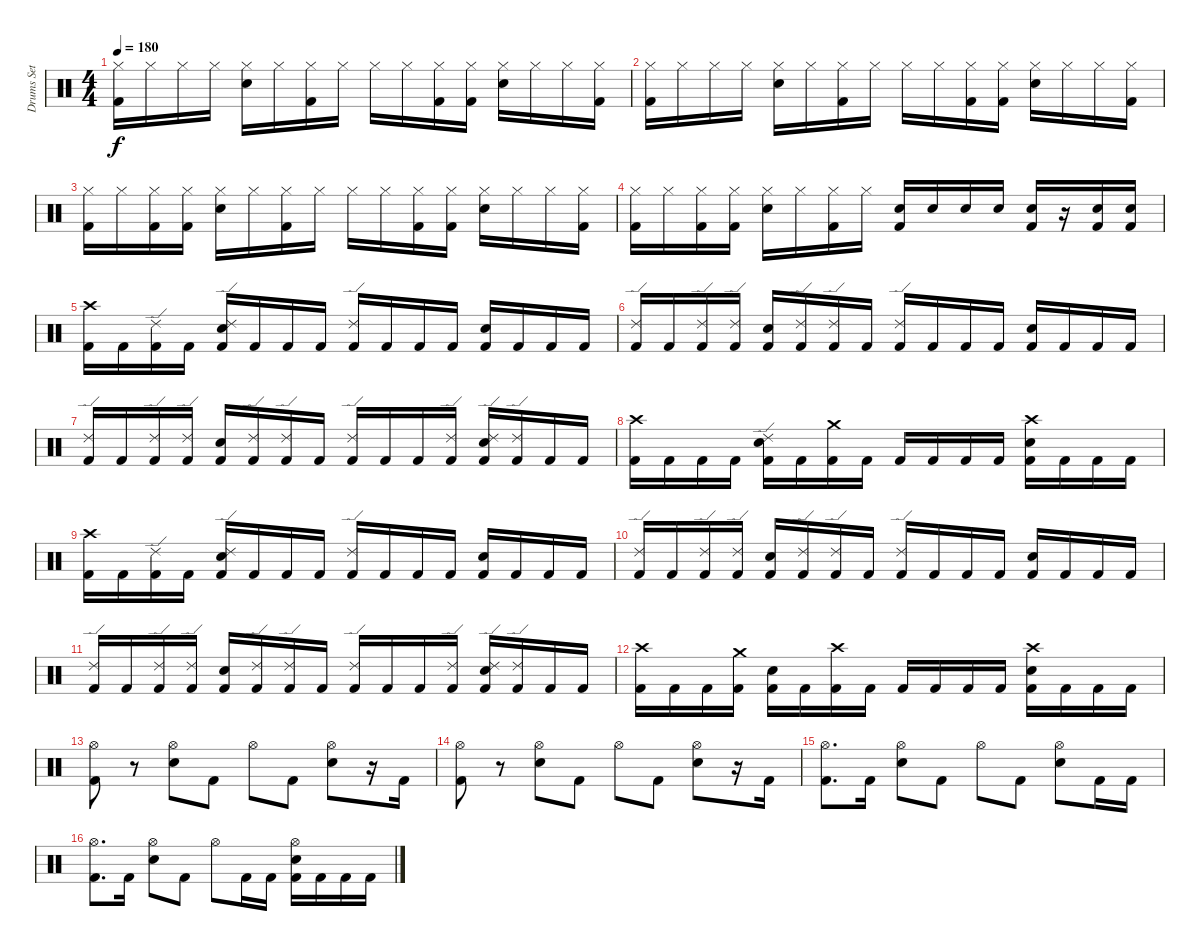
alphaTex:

\track ("Drums Set" "Drums Set") {instrument percussion}
\staff {score}
\articulation defaults
\ts (4 4)
\tempo 180
\clef neutral
\ks c
("Hi-Hat (closed)" "Kick (hit) 2").16{dy f} "Hi-Hat (closed)".16 "Hi-Hat (closed)".16 "Hi-Hat (closed)".16 ("Hi-Hat (closed)" "Snare (hit) 2").16 "Hi-Hat (closed)".16 ("Hi-Hat (closed)" "Kick (hit) 2").16 "Hi-Hat (closed)".16 "Hi-Hat (closed)".16 "Hi-Hat (closed)".16 ("Hi-Hat (closed)" "Kick (hit) 2").16 ("Hi-Hat (closed)" "Kick (hit) 2").16 ("Hi-Hat (closed)" "Snare (hit) 2").16 "Hi-Hat (closed)".16 "Hi-Hat (closed)".16 ("Hi-Hat (closed)" "Kick (hit) 2").16 |
("Hi-Hat (closed)" "Kick (hit) 2").16 "Hi-Hat (closed)".16 "Hi-Hat (closed)".16 "Hi-Hat (closed)".16 ("Hi-Hat (closed)" "Snare (hit) 2").16 "Hi-Hat (closed)".16 ("Hi-Hat (closed)" "Kick (hit) 2").16 "Hi-Hat (closed)".16 "Hi-Hat (closed)".16 "Hi-Hat (closed)".16 ("Hi-Hat (closed)" "Kick (hit) 2").16 ("Hi-Hat (closed)" "Kick (hit) 2").16 ("Hi-Hat (closed)" "Snare (hit) 2").16 "Hi-Hat (closed)".16 "Hi-Hat (closed)".16 ("Hi-Hat (closed)" "Kick (hit) 2").16 |
("Hi-Hat (closed)" "Kick (hit) 2").16 "Hi-Hat (closed)".16 ("Hi-Hat (closed)" "Kick (hit) 2").16 ("Hi-Hat (closed)" "Kick (hit) 2").16 ("Hi-Hat (closed)" "Snare (hit) 2").16 "Hi-Hat (closed)".16 ("Hi-Hat (closed)" "Kick (hit) 2").16 "Hi-Hat (closed)".16 "Hi-Hat (closed)".16 "Hi-Hat (closed)".16 ("Hi-Hat (closed)" "Kick (hit) 2").16 ("Hi-Hat (closed)" "Kick (hit) 2").16 ("Hi-Hat (closed)" "Snare (hit) 2").16 "Hi-Hat (closed)".16 "Hi-Hat (closed)".16 ("Hi-Hat (closed)" "Kick (hit) 2").16 |
("Hi-Hat (closed)" "Kick (hit) 2").16 "Hi-Hat (closed)".16 ("Hi-Hat (closed)" "Kick (hit) 2").16 ("Hi-Hat (closed)" "Kick (hit) 2").16 ("Hi-Hat (closed)" "Snare (hit) 2").16 "Hi-Hat (closed)".16 ("Hi-Hat (closed)" "Kick (hit) 2").16 "Hi-Hat (closed)".16 ("Snare (hit) 2" "Kick (hit) 2").16 "Snare (hit) 2".16 "Snare (hit) 2".16 "Snare (hit) 2".16 ("Snare (hit) 2" "Kick (hit) 2").16 r.16 ("Snare (hit) 2" "Kick (hit) 2").16 ("Snare (hit) 2" "Kick (hit) 2").16 |
("Crash high (hit)" "Kick (hit) 2").16 "Kick (hit) 2".16 ("Ride (edge) 2" "Kick (hit) 2").16 "Kick (hit) 2".16 ("Ride (edge) 2" "Snare (hit) 2" "Kick (hit) 2").16 "Kick (hit) 2".16 "Kick (hit) 2".16 "Kick (hit) 2".16 ("Ride (edge) 2" "Kick (hit) 2").16 "Kick (hit) 2".16 "Kick (hit) 2".16 "Kick (hit) 2".16 ("Snare (hit) 2" "Kick (hit) 2").16 "Kick (hit) 2".16 "Kick (hit) 2".16 "Kick (hit) 2".16 |
("Ride (edge) 2" "Kick (hit) 2").16 "Kick (hit) 2".16 ("Ride (edge) 2" "Kick (hit) 2").16 ("Ride (edge) 2" "Kick (hit) 2").16 ("Snare (hit) 2" "Kick (hit) 2").16 ("Ride (edge) 2" "Kick (hit) 2").16 ("Ride (edge) 2" "Kick (hit) 2").16 "Kick (hit) 2".16 ("Ride (edge) 2" "Kick (hit) 2").16 "Kick (hit) 2".16 "Kick (hit) 2".16 "Kick (hit) 2".16 ("Snare (hit) 2" "Kick (hit) 2").16 "Kick (hit) 2".16 "Kick (hit) 2".16 "Kick (hit) 2".16 |
("Ride (edge) 2" "Kick (hit) 2").16 "Kick (hit) 2".16 ("Ride (edge) 2" "Kick (hit) 2").16 ("Ride (edge) 2" "Kick (hit) 2").16 ("Snare (hit) 2" "Kick (hit) 2").16 ("Ride (edge) 2" "Kick (hit) 2").16 ("Ride (edge) 2" "Kick (hit) 2").16 "Kick (hit) 2".16 ("Ride (edge) 2" "Kick (hit) 2").16 "Kick (hit) 2".16 "Kick (hit) 2".16 ("Ride (edge) 2" "Kick (hit) 2").16 ("Ride (edge) 2" "Snare (hit) 2" "Kick (hit) 2").16 ("Ride (edge) 2" "Kick (hit) 2").16 "Kick (hit) 2".16 "Kick (hit) 2".16 |
("Crash high (hit)" "Kick (hit) 2").16 "Kick (hit) 2".16 "Kick (hit) 2".16 "Kick (hit) 2".16 ("Ride (edge) 2" "Snare (hit) 2" "Kick (hit) 2").16 "Kick (hit) 2".16 ("Crash medium (hit)" "Kick (hit) 2").16 "Kick (hit) 2".16 "Kick (hit) 2".16 "Kick (hit) 2".16 "Kick (hit) 2".16 "Kick (hit) 2".16 ("Crash high (hit)" "Snare (hit) 2" "Kick (hit) 2").16 "Kick (hit) 2".16 "Kick (hit) 2".16 "Kick (hit) 2".16 |
("Crash high (hit)" "Kick (hit) 2").16 "Kick (hit) 2".16 ("Ride (edge) 2" "Kick (hit) 2").16 "Kick (hit) 2".16 ("Ride (edge) 2" "Snare (hit) 2" "Kick (hit) 2").16 "Kick (hit) 2".16 "Kick (hit) 2".16 "Kick (hit) 2".16 ("Ride (edge) 2" "Kick (hit) 2").16 "Kick (hit) 2".16 "Kick (hit) 2".16 "Kick (hit) 2".16 ("Snare (hit) 2" "Kick (hit) 2").16 "Kick (hit) 2".16 "Kick (hit) 2".16 "Kick (hit) 2".16 |
("Ride (edge) 2" "Kick (hit) 2").16 "Kick (hit) 2".16 ("Ride (edge) 2" "Kick (hit) 2").16 ("Ride (edge) 2" "Kick (hit) 2").16 ("Snare (hit) 2" "Kick (hit) 2").16 ("Ride (edge) 2" "Kick (hit) 2").16 ("Ride (edge) 2" "Kick (hit) 2").16 "Kick (hit) 2".16 ("Ride (edge) 2" "Kick (hit) 2").16 "Kick (hit) 2".16 "Kick (hit) 2".16 "Kick (hit) 2".16 ("Snare (hit) 2" "Kick (hit) 2").16 "Kick (hit) 2".16 "Kick (hit) 2".16 "Kick (hit) 2".16 |
("Ride (edge) 2" "Kick (hit) 2").16 "Kick (hit) 2".16 ("Ride (edge) 2" "Kick (hit) 2").16 ("Ride (edge) 2" "Kick (hit) 2").16 ("Snare (hit) 2" "Kick (hit) 2").16 ("Ride (edge) 2" "Kick (hit) 2").16 ("Ride (edge) 2" "Kick (hit) 2").16 "Kick (hit) 2".16 ("Ride (edge) 2" "Kick (hit) 2").16 "Kick (hit) 2".16 "Kick (hit) 2".16 ("Ride (edge) 2" "Kick (hit) 2").16 ("Ride (edge) 2" "Snare (hit) 2" "Kick (hit) 2").16 ("Ride (edge) 2" "Kick (hit) 2").16 "Kick (hit) 2".16 "Kick (hit) 2".16 |
("Crash high (hit)" "Kick (hit) 2").16 "Kick (hit) 2".16 "Kick (hit) 2".16 ("Crash medium (hit)" "Kick (hit) 2").16 ("Snare (hit) 2" "Kick (hit) 2").16 "Kick (hit) 2".16 ("Crash high (hit)" "Kick (hit) 2").16 "Kick (hit) 2".16 "Kick (hit) 2".16 "Kick (hit) 2".16 "Kick (hit) 2".16 "Kick (hit) 2".16 ("Crash high (hit)" "Snare (hit) 2" "Kick (hit) 2").16 "Kick (hit) 2".16 "Kick (hit) 2".16 "Kick (hit) 2".16 |
("Hi-Hat (open)" "Kick (hit) 2").8 r.8 ("Hi-Hat (open)" "Snare (hit) 2").8 "Kick (hit) 2".8 "Hi-Hat (open)".8 "Kick (hit) 2".8 ("Hi-Hat (open)" "Snare (hit) 2").8 r.16 "Kick (hit) 2".16 |
("Hi-Hat (open)" "Kick (hit) 2").8 r.8 ("Hi-Hat (open)" "Snare (hit) 2").8 "Kick (hit) 2".8 "Hi-Hat (open)".8 "Kick (hit) 2".8 ("Hi-Hat (open)" "Snare (hit) 2").8 r.16 "Kick (hit) 2".16 |
("Hi-Hat (open)" "Kick (hit) 2").8{d} "Kick (hit) 2".16 ("Hi-Hat (open)" "Snare (hit) 2").8 "Kick (hit) 2".8 "Hi-Hat (open)".8 "Kick (hit) 2".8 ("Hi-Hat (open)" "Snare (hit) 2").8 "Kick (hit) 2".16 "Kick (hit) 2".16 |
("Hi-Hat (open)" "Kick (hit) 2").8{d} "Kick (hit) 2".16 ("Hi-Hat (open)" "Snare (hit) 2").8 "Kick (hit) 2".8 "Hi-Hat (open)".8 "Kick (hit) 2".16 "Kick (hit) 2".16 ("Hi-Hat (open)" "Snare (hit) 2" "Kick (hit) 2").16 "Kick (hit) 2".16 "Kick (hit) 2".16 "Kick (hit) 2".16
